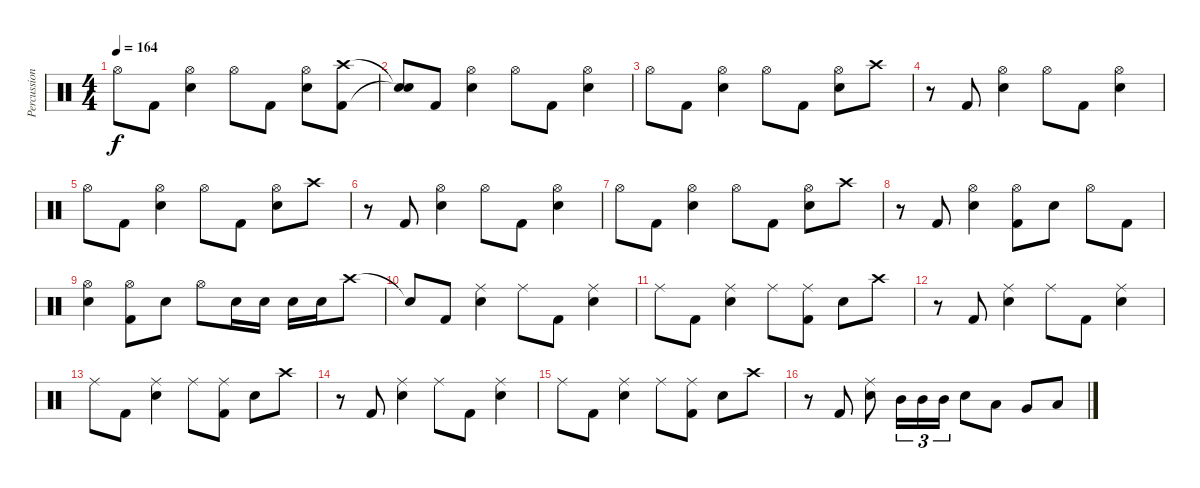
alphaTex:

\track ("Percussion" "Percussion") {instrument percussion}
\staff {score}
\articulation defaults
\ts (4 4)
\tempo 164
\clef neutral
\ks c "Hi-Hat (open)".8{dy f} "Kick (hit) 2".8
("Hi-Hat (open)" "Snare (hit) 2").4 "Hi-Hat (open)".8 "Kick (hit) 2".8 ("Hi-Hat (open)" "Snare (hit) 2").8 ("Crash high (hit)" "Kick (hit) 2").8 |
("Snare (hit)"{t} "Snare (hit)"{t}).8 "Kick (hit) 2".8 ("Hi-Hat (open)" "Snare (hit) 2").4 "Hi-Hat (open)".8 "Kick (hit) 2".8 ("Hi-Hat (open)" "Snare (hit) 2").4 |
"Hi-Hat (open)".8 "Kick (hit) 2".8 ("Hi-Hat (open)" "Snare (hit) 2").4 "Hi-Hat (open)".8 "Kick (hit) 2".8 ("Hi-Hat (open)" "Snare (hit) 2").8 "Crash high (hit)".8 |
r.8 "Kick (hit) 2".8 ("Hi-Hat (open)" "Snare (hit) 2").4 "Hi-Hat (open)".8 "Kick (hit) 2".8 ("Hi-Hat (open)" "Snare (hit) 2").4 |
"Hi-Hat (open)".8 "Kick (hit) 2".8 ("Hi-Hat (open)" "Snare (hit) 2").4 "Hi-Hat (open)".8 "Kick (hit) 2".8 ("Hi-Hat (open)" "Snare (hit) 2").8 "Crash high (hit)".8 |
r.8 "Kick (hit) 2".8 ("Hi-Hat (open)" "Snare (hit) 2").4 "Hi-Hat (open)".8 "Kick (hit) 2".8 ("Hi-Hat (open)" "Snare (hit) 2").4 |
"Hi-Hat (open)".8 "Kick (hit) 2".8 ("Hi-Hat (open)" "Snare (hit) 2").4 "Hi-Hat (open)".8 "Kick (hit) 2".8 ("Hi-Hat (open)" "Snare (hit) 2").8 "Crash high (hit)".8 |
r.8 "Kick (hit) 2".8 ("Hi-Hat (open)" "Snare (hit) 2").4 ("Hi-Hat (open)" "Kick (hit) 2").8 "Snare (hit) 2".8 "Hi-Hat (open)".8 "Kick (hit) 2".8 |
("Hi-Hat (open)" "Snare (hit) 2").4 ("Hi-Hat (open)" "Kick (hit) 2").8 "Snare (hit) 2".8 "Hi-Hat (open)".8 "Snare (hit) 2".16 "Snare (hit) 2".16 "Snare (hit) 2".16 "Snare (hit) 2".16 "Crash high (hit)".8 |
"Snare (hit)"{t}.8 "Kick (hit) 2".8 ("Ride (middle)" "Snare (hit) 2").4 "Ride (middle)".8 "Kick (hit) 2".8 ("Ride (middle)" "Snare (hit) 2").4 |
"Ride (middle)".8 "Kick (hit) 2".8 ("Ride (middle)" "Snare (hit) 2").4 "Ride (middle)".8 ("Ride (middle)" "Kick (hit) 2").8 "Snare (hit) 2".8 "Crash high (hit)".8 |
r.8 "Kick (hit) 2".8 ("Ride (middle)" "Snare (hit) 2").4 "Ride (middle)".8 "Kick (hit) 2".8 ("Ride (middle)" "Snare (hit) 2").4 |
"Ride (middle)".8 "Kick (hit) 2".8 ("Ride (middle)" "Snare (hit) 2").4 "Ride (middle)".8 ("Ride (middle)" "Kick (hit) 2").8 "Snare (hit) 2".8 "Crash high (hit)".8 |
r.8 "Kick (hit) 2".8 ("Ride (middle)" "Snare (hit) 2").4 "Ride (middle)".8 "Kick (hit) 2".8 ("Ride (middle)" "Snare (hit) 2").4 |
"Ride (middle)".8 "Kick (hit) 2".8 ("Ride (middle)" "Snare (hit) 2").4 "Ride (middle)".8 ("Ride (middle)" "Kick (hit) 2").8 "Snare (hit) 2".8 "Crash high (hit)".8 |
r.8 "Kick (hit) 2".8 ("Ride (middle)" "Snare (hit) 2").8 "Mid Tom (hit)".16{tu (3 2)} "Mid Tom (hit)".16{tu (3 2)} "Mid Tom (hit)".16{tu (3 2)} "Snare (hit) 2".8 "Low Tom (hit)".8 "Very Low Tom (hit)".8 "Low Floor Tom (hit)".8
